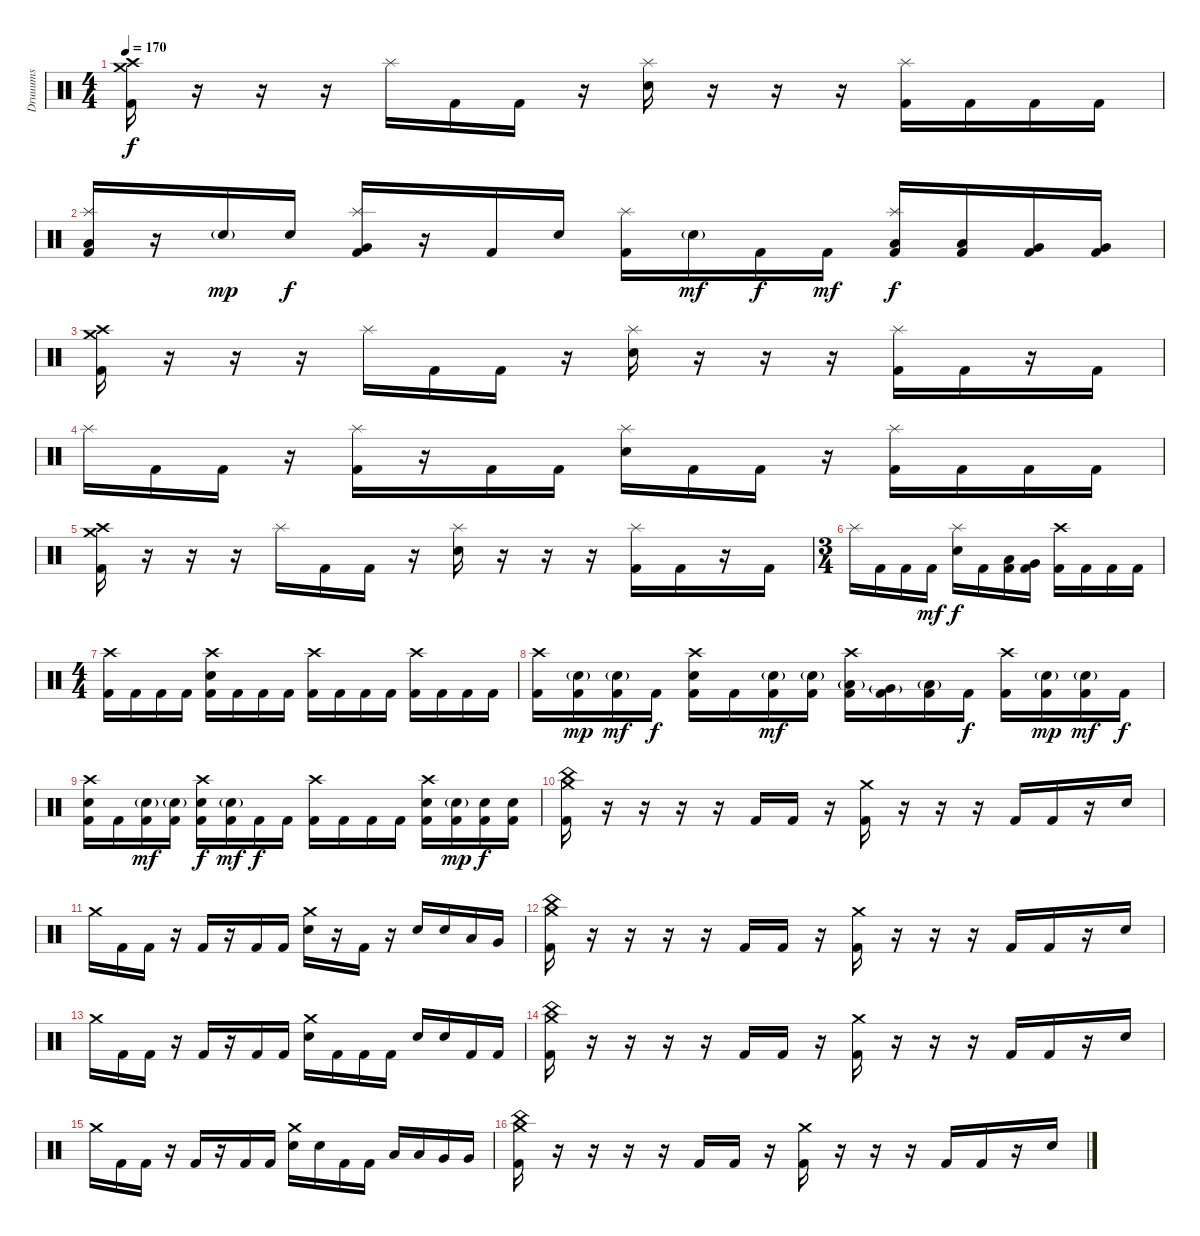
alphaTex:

\track ("Druuums" "Druuums") {instrument percussion}
\staff {score}
\articulation defaults
\ts (4 4)
\tempo 170
\clef neutral
\ks c
("Crash high (hit)" "Crash medium (hit)" "Kick (hit) 2").16{dy f} r.16 r.16 r.16 "Splash (hit)".16 "Kick (hit) 2".16 "Kick (hit) 2".16 r.16 ("Splash (hit)" "Electric Snare (hit)").16 r.16 r.16 r.16 ("Splash (hit)" "Kick (hit) 2").16 "Kick (hit) 2".16 "Kick (hit) 2".16 "Kick (hit) 2".16 |
("Splash (hit)" "Low Floor Tom (hit)" "Kick (hit) 2").16 r.16 "Electric Snare (hit)"{g}.16{dy mp} "Electric Snare (hit)".16{dy f} ("Splash (hit)" "Very Low Tom (hit)" "Kick (hit) 2").16 r.16 "Kick (hit) 2".16 "Electric Snare (hit)".16 ("Splash (hit)" "Kick (hit) 2").16 "Electric Snare (hit)"{g}.16{dy mf} "Kick (hit) 2".16{dy f} "Kick (hit) 2".16{dy mf} ("Splash (hit)" "Low Tom (hit)" "Kick (hit) 2").16{dy f} ("Low Tom (hit)" "Kick (hit) 2").16 ("Very Low Tom (hit)" "Kick (hit) 2").16 ("Very Low Tom (hit)" "Kick (hit) 2").16 |
("Crash medium (hit)" "Crash high (hit)" "Kick (hit) 2").16 r.16 r.16 r.16 "Splash (hit)".16 "Kick (hit) 2".16 "Kick (hit) 2".16 r.16 ("Splash (hit)" "Electric Snare (hit)").16 r.16 r.16 r.16 ("Splash (hit)" "Kick (hit) 2").16 "Kick (hit) 2".16 r.16 "Kick (hit) 2".16 |
"Splash (hit)".16 "Kick (hit) 2".16 "Kick (hit) 2".16 r.16 ("Splash (hit)" "Kick (hit) 2").16 r.16 "Kick (hit) 2".16 "Kick (hit) 2".16 ("Splash (hit)" "Electric Snare (hit)").16 "Kick (hit) 2".16 "Kick (hit) 2".16 r.16 ("Splash (hit)" "Kick (hit) 2").16 "Kick (hit) 2".16 "Kick (hit) 2".16 "Kick (hit) 2".16 |
("Crash medium (hit)" "Crash high (hit)" "Kick (hit) 2").16 r.16 r.16 r.16 "Splash (hit)".16 "Kick (hit) 2".16 "Kick (hit) 2".16 r.16 ("Splash (hit)" "Electric Snare (hit)").16 r.16 r.16 r.16 ("Splash (hit)" "Kick (hit) 2").16 "Kick (hit) 2".16 r.16 "Kick (hit) 2".16 |
\ts (3 4)
"Splash (hit)".16 "Kick (hit) 2".16 "Kick (hit) 2".16 "Kick (hit) 2".16{dy mf} ("Splash (hit)" "Electric Snare (hit)").16{dy f} "Kick (hit) 2".16 ("Low Tom (hit)" "Kick (hit) 2").16 ("Very Low Tom (hit)" "Kick (hit) 2").16 ("Crash high (hit)" "Kick (hit) 2").16 "Kick (hit) 2".16 "Kick (hit) 2".16 "Kick (hit) 2".16 |
\ts (4 4)
("Crash high (hit)" "Kick (hit) 2").16 "Kick (hit) 2".16 "Kick (hit) 2".16 "Kick (hit) 2".16 ("Crash high (hit)" "Electric Snare (hit)" "Kick (hit) 2").16 "Kick (hit) 2".16 "Kick (hit) 2".16 "Kick (hit) 2".16 ("Crash high (hit)" "Kick (hit) 2").16 "Kick (hit) 2".16 "Kick (hit) 2".16 "Kick (hit) 2".16 ("Crash high (hit)" "Kick (hit) 2").16 "Kick (hit) 2".16 "Kick (hit) 2".16 "Kick (hit) 2".16 |
("Crash high (hit)" "Kick (hit) 2").16 ("Electric Snare (hit)"{g} "Kick (hit) 2").16{dy mp} ("Electric Snare (hit)"{g} "Kick (hit) 2").16{dy mf} "Kick (hit) 2".16{dy f} ("Crash high (hit)" "Electric Snare (hit)" "Kick (hit) 2").16 "Kick (hit) 2".16 ("Electric Snare (hit)"{g} "Kick (hit) 2").16{dy mf} ("Electric Snare (hit)"{g} "Kick (hit) 2").16 ("Crash high (hit)" "Low Tom (hit)"{g} "Kick (hit) 2").16 ("Very Low Tom (hit)"{g} "Kick (hit) 2").16 ("Low Floor Tom (hit)"{g} "Kick (hit) 2").16 "Kick (hit) 2".16{dy f} ("Crash high (hit)" "Kick (hit) 2").16 ("Electric Snare (hit)"{g} "Kick (hit) 2").16{dy mp} ("Electric Snare (hit)"{g} "Kick (hit) 2").16{dy mf} "Kick (hit) 2".16{dy f} |
("Crash high (hit)" "Electric Snare (hit)" "Kick (hit) 2").16 "Kick (hit) 2".16 ("Electric Snare (hit)"{g} "Kick (hit) 2").16{dy mf} ("Electric Snare (hit)"{g} "Kick (hit) 2").16 ("Crash high (hit)" "Electric Snare (hit)" "Kick (hit) 2").16{dy f} ("Electric Snare (hit)"{g} "Kick (hit) 2").16{dy mf} "Kick (hit) 2".16{dy f} "Kick (hit) 2".16 ("Crash high (hit)" "Kick (hit) 2").16 "Kick (hit) 2".16 "Kick (hit) 2".16 "Kick (hit) 2".16 ("Crash high (hit)" "Electric Snare (hit)" "Kick (hit) 2").16 ("Electric Snare (hit)"{g} "Kick (hit) 2").16{dy mp} ("Electric Snare (hit)" "Kick (hit) 2").16{dy f} ("Electric Snare (hit)" "Kick (hit) 2").16 |
("Crash medium (hit)" "China (hit)" "Kick (hit) 2").16 r.16 r.16 r.16 r.16 "Kick (hit) 2".16 "Kick (hit) 2".16 r.16 ("Crash medium (hit)" "Kick (hit) 2").16 r.16 r.16 r.16 "Kick (hit) 2".16 "Kick (hit) 2".16 r.16 "Electric Snare (hit)".16 |
"Crash medium (hit)".16 "Kick (hit) 2".16 "Kick (hit) 2".16 r.16 "Kick (hit) 2".16 r.16 "Kick (hit) 2".16 "Kick (hit) 2".16 ("Crash medium (hit)" "Electric Snare (hit)").16 r.16 "Kick (hit) 2".16 r.16 "Electric Snare (hit)".16 "Electric Snare (hit)".16 "Low Tom (hit)".16 "Very Low Tom (hit)".16 |
("Crash medium (hit)" "China (hit)" "Kick (hit) 2").16 r.16 r.16 r.16 r.16 "Kick (hit) 2".16 "Kick (hit) 2".16 r.16 ("Crash medium (hit)" "Kick (hit) 2").16 r.16 r.16 r.16 "Kick (hit) 2".16 "Kick (hit) 2".16 r.16 "Electric Snare (hit)".16 |
"Crash medium (hit)".16 "Kick (hit) 2".16 "Kick (hit) 2".16 r.16 "Kick (hit) 2".16 r.16 "Kick (hit) 2".16 "Kick (hit) 2".16 ("Crash medium (hit)" "Electric Snare (hit)").16 "Kick (hit) 2".16 "Kick (hit) 2".16 "Kick (hit) 2".16 "Electric Snare (hit)".16 "Electric Snare (hit)".16 "Kick (hit) 2".16 "Kick (hit) 2".16 |
("Crash medium (hit)" "China (hit)" "Kick (hit) 2").16 r.16 r.16 r.16 r.16 "Kick (hit) 2".16 "Kick (hit) 2".16 r.16 ("Crash medium (hit)" "Kick (hit) 2").16 r.16 r.16 r.16 "Kick (hit) 2".16 "Kick (hit) 2".16 r.16 "Electric Snare (hit)".16 |
"Crash medium (hit)".16 "Kick (hit) 2".16 "Kick (hit) 2".16 r.16 "Kick (hit) 2".16 r.16 "Kick (hit) 2".16 "Kick (hit) 2".16 ("Crash medium (hit)" "Electric Snare (hit)").16 "Electric Snare (hit)".16 "Kick (hit) 2".16 "Kick (hit) 2".16 "Low Tom (hit)".16 "Low Tom (hit)".16 "Very Low Tom (hit)".16 "Very Low Tom (hit)".16 |
("Crash medium (hit)" "China (hit)" "Kick (hit) 2").16 r.16 r.16 r.16 r.16 "Kick (hit) 2".16 "Kick (hit) 2".16 r.16 ("Crash medium (hit)" "Kick (hit) 2").16 r.16 r.16 r.16 "Kick (hit) 2".16 "Kick (hit) 2".16 r.16 "Electric Snare (hit)".16
